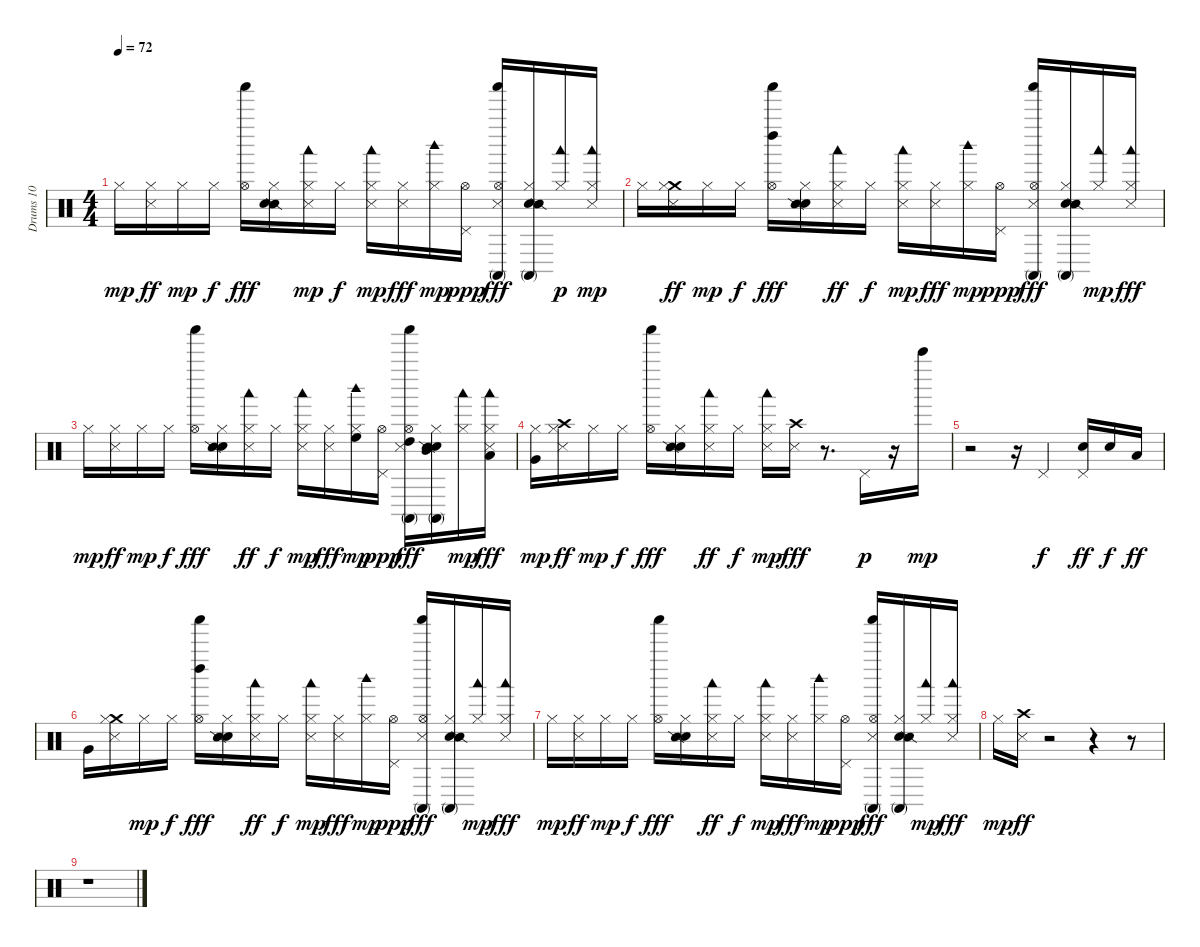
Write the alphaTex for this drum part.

\track ("Drums 10" "Drums 10") {instrument percussion}
\staff {score}
\articulation defaults
\ts (4 4)
\tempo 72
\clef neutral
\ks c "Hi-Hat (closed)".16{dy mp}
("Metronome (hit)" "Hi-Hat (closed)").16{dy ff} "Hi-Hat (closed)".16{dy mp} "Hi-Hat (closed)".16{dy f} ("Hi-Hat (open)" "Shaker (hit)").16{dy fff} ("Snare (side stick) 2" "Hi-Hat (closed)" "Metronome (bell)").16 ("Metronome (hit)" "Hi-Hat (closed)" "Woodblock low (hit)").16{dy mp} "Hi-Hat (closed)".16{dy f} ("Woodblock low (hit)" "Hi-Hat (closed)" "Metronome (hit)").16{dy mp} ("Hi-Hat (closed)" "Metronome (hit)").16{dy fff} ("Woodblock high (hit)" "Hi-Hat (closed)").16{dy mp} ("Hi-Hat (open)" "Pedal Hi-Hat (hit)").16{dy ppp} ("Conga high (mute)" "Hi-Hat (open)" "Metronome (hit)" "Shaker (hit)").16{dy fff} ("Metronome (bell)" "Snare (side stick) 2" "Hi-Hat (closed)" "Conga high (mute)").16 ("Hi-Hat (closed)" "Woodblock low (hit)").16{dy p} ("Metronome (hit)" "Hi-Hat (closed)" "Woodblock low (hit)").16{dy mp} |
"Hi-Hat (closed)".16 ("Crash medium (hit)" "Hi-Hat (closed)" "Metronome (hit)").16{dy ff} "Hi-Hat (closed)".16{dy mp} "Hi-Hat (closed)".16{dy f} ("Left Maraca (hit)" "Hi-Hat (open)" "Shaker (hit)").16{dy fff} ("Metronome (bell)" "Hi-Hat (closed)" "Snare (side stick) 2").16 ("Woodblock low (hit)" "Hi-Hat (closed)" "Metronome (hit)").16{dy ff} "Hi-Hat (closed)".16{dy f} ("Woodblock low (hit)" "Hi-Hat (closed)" "Metronome (hit)").16{dy mp} ("Hi-Hat (closed)" "Metronome (hit)").16{dy fff} ("Woodblock high (hit)" "Hi-Hat (closed)").16{dy mp} ("Hi-Hat (open)" "Pedal Hi-Hat (hit)").16{dy ppp} ("Hi-Hat (open)" "Metronome (hit)" "Conga high (mute)" "Shaker (hit)").16{dy fff} ("Metronome (bell)" "Conga high (mute)" "Hi-Hat (closed)" "Snare (side stick) 2").16 ("Woodblock low (hit)" "Hi-Hat (closed)").16{dy mp} ("Woodblock low (hit)" "Hi-Hat (closed)" "Metronome (hit)").16{dy fff} |
"Hi-Hat (closed)".16{dy mp} ("Hi-Hat (closed)" "Metronome (hit)").16{dy ff} "Hi-Hat (closed)".16{dy mp} "Hi-Hat (closed)".16{dy f} ("Hi-Hat (open)" "Shaker (hit)").16{dy fff} ("Metronome (bell)" "Snare (side stick) 2" "Hi-Hat (closed)").16 ("Woodblock low (hit)" "Hi-Hat (closed)" "Metronome (hit)").16{dy ff} "Hi-Hat (closed)".16{dy f} ("Woodblock low (hit)" "Hi-Hat (closed)" "Metronome (hit)").16{dy mp} ("Hi-Hat (closed)" "Metronome (hit)").16{dy fff} ("High Floor Tom (hit)" "Woodblock high (hit)" "Hi-Hat (closed)").16{dy mp} ("Hi-Hat (open)" "Pedal Hi-Hat (hit)").16{dy ppp} ("High Tom (hit)" "Conga high (mute)" "Hi-Hat (open)" "Metronome (hit)" "Shaker (hit)").16{dy fff} ("Mid Tom (hit)" "Metronome (bell)" "Conga high (mute)" "Snare (side stick) 2" "Hi-Hat (closed)").16 ("Woodblock low (hit)" "Hi-Hat (closed)").16{dy mp} ("Low Tom (hit)" "Woodblock low (hit)" "Hi-Hat (closed)" "Metronome (hit)").16{dy fff} |
("Very Low Tom (hit)" "Hi-Hat (closed)").16{dy mp} ("Crash high (hit)" "Hi-Hat (closed)" "Metronome (hit)").16{dy ff} "Hi-Hat (closed)".16{dy mp} "Hi-Hat (closed)".16{dy f} ("Hi-Hat (open)" "Shaker (hit)").16{dy fff} ("Metronome (bell)" "Hi-Hat (closed)" "Snare (side stick) 2").16 ("Woodblock low (hit)" "Hi-Hat (closed)" "Metronome (hit)").16{dy ff} "Hi-Hat (closed)".16{dy f} ("Woodblock low (hit)" "Metronome (hit)" "Hi-Hat (closed)").16{dy mp} ("Metronome (hit)" "Crash high (hit)").16{dy fff} r.8{d} "Pedal Hi-Hat (hit)".16{dy p} r.16 "Bell Tree (hit)".16{dy mp} |
r.2 r.16 "Pedal Hi-Hat (hit)".4{dy f} ("Pedal Hi-Hat (hit)" "Snare (hit) 2").16{dy ff} "Electric Snare (hit)".16{dy f} "Low Tom (hit)".16{dy ff} |
"Very Low Tom (hit)".16 ("Crash medium (hit)" "Hi-Hat (closed)" "Metronome (hit)").16 "Hi-Hat (closed)".16{dy mp} "Hi-Hat (closed)".16{dy f} ("Left Maraca (hit)" "Hi-Hat (open)" "Shaker (hit)").16{dy fff} ("Metronome (bell)" "Hi-Hat (closed)" "Snare (side stick) 2").16 ("Woodblock low (hit)" "Hi-Hat (closed)" "Metronome (hit)").16{dy ff} "Hi-Hat (closed)".16{dy f} ("Woodblock low (hit)" "Hi-Hat (closed)" "Metronome (hit)").16{dy mp} ("Hi-Hat (closed)" "Metronome (hit)").16{dy fff} ("Woodblock high (hit)" "Hi-Hat (closed)").16{dy mp} ("Hi-Hat (open)" "Pedal Hi-Hat (hit)").16{dy ppp} ("Hi-Hat (open)" "Metronome (hit)" "Conga high (mute)" "Shaker (hit)").16{dy fff} ("Metronome (bell)" "Conga high (mute)" "Hi-Hat (closed)" "Snare (side stick) 2").16 ("Woodblock low (hit)" "Hi-Hat (closed)").16{dy mp} ("Woodblock low (hit)" "Hi-Hat (closed)" "Metronome (hit)").16{dy fff} |
"Hi-Hat (closed)".16{dy mp} ("Hi-Hat (closed)" "Metronome (hit)").16{dy ff} "Hi-Hat (closed)".16{dy mp} "Hi-Hat (closed)".16{dy f} ("Hi-Hat (open)" "Shaker (hit)").16{dy fff} ("Metronome (bell)" "Snare (side stick) 2" "Hi-Hat (closed)").16 ("Woodblock low (hit)" "Hi-Hat (closed)" "Metronome (hit)").16{dy ff} "Hi-Hat (closed)".16{dy f} ("Woodblock low (hit)" "Hi-Hat (closed)" "Metronome (hit)").16{dy mp} ("Hi-Hat (closed)" "Metronome (hit)").16{dy fff} ("Woodblock high (hit)" "Hi-Hat (closed)").16{dy mp} ("Hi-Hat (open)" "Pedal Hi-Hat (hit)").16{dy ppp} ("Conga high (mute)" "Hi-Hat (open)" "Metronome (hit)" "Shaker (hit)").16{dy fff} ("Metronome (bell)" "Conga high (mute)" "Snare (side stick) 2" "Hi-Hat (closed)").16 ("Woodblock low (hit)" "Hi-Hat (closed)").16{dy mp} ("Woodblock low (hit)" "Hi-Hat (closed)" "Metronome (hit)").16{dy fff} |
"Hi-Hat (closed)".16{dy mp} ("Crash high (hit)" "Metronome (hit)").16{dy ff} r.2 r.4 r.8 |
r.1
